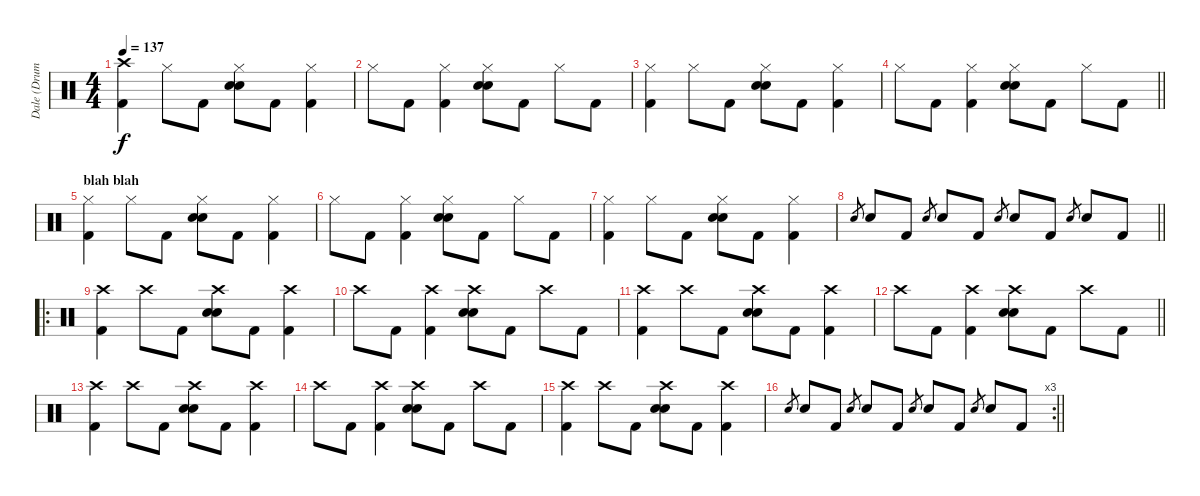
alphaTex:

\track ("Dale (Drums 1)" "Dale (Drum") {instrument percussion}
\staff {score}
\articulation defaults
\ts (4 4)
\tempo 137
\clef neutral
\ks c
("Crash high (hit)" "Kick (hit) 2").4{dy f} "Hi-Hat (closed)".8 "Kick (hit) 2".8 ("Hi-Hat (closed)" "Snare (hit) 2" "Electric Snare (hit)").8 "Kick (hit) 2".8 ("Kick (hit) 2" "Hi-Hat (closed)").4 |
"Hi-Hat (closed)".8 "Kick (hit) 2".8 ("Hi-Hat (closed)" "Kick (hit) 2").4 ("Hi-Hat (closed)" "Snare (hit) 2" "Electric Snare (hit)").8 "Kick (hit) 2".8 "Hi-Hat (closed)".8 "Kick (hit) 2".8 |
("Hi-Hat (closed)" "Kick (hit) 2").4 "Hi-Hat (closed)".8 "Kick (hit) 2".8 ("Hi-Hat (closed)" "Snare (hit) 2" "Electric Snare (hit)").8 "Kick (hit) 2".8 ("Kick (hit) 2" "Hi-Hat (closed)").4 |
\barLineRight lightlight "Hi-Hat (closed)".8 "Kick (hit) 2".8
("Hi-Hat (closed)" "Kick (hit) 2").4 ("Hi-Hat (closed)" "Snare (hit) 2" "Electric Snare (hit)").8 "Kick (hit) 2".8 "Hi-Hat (closed)".8 "Kick (hit) 2".8 |
\section ("" "blah blah")
("Hi-Hat (closed)" "Kick (hit) 2").4 "Hi-Hat (closed)".8 "Kick (hit) 2".8 ("Hi-Hat (closed)" "Snare (hit) 2" "Electric Snare (hit)").8 "Kick (hit) 2".8 ("Kick (hit) 2" "Hi-Hat (closed)").4 |
"Hi-Hat (closed)".8 "Kick (hit) 2".8 ("Hi-Hat (closed)" "Kick (hit) 2").4 ("Hi-Hat (closed)" "Snare (hit) 2" "Electric Snare (hit)").8 "Kick (hit) 2".8 "Hi-Hat (closed)".8 "Kick (hit) 2".8 |
("Hi-Hat (closed)" "Kick (hit) 2").4 "Hi-Hat (closed)".8 "Kick (hit) 2".8 ("Hi-Hat (closed)" "Snare (hit) 2" "Electric Snare (hit)").8 "Kick (hit) 2".8 ("Kick (hit) 2" "Hi-Hat (closed)").4 |
\barLineRight lightlight "Snare (hit) 2".8{gr} "Snare (hit) 2".8 "Kick (hit) 2".8 "Snare (hit) 2".8{gr} "Snare (hit) 2".8 "Kick (hit) 2".8 "Snare (hit) 2".8{gr} "Snare (hit) 2".8 "Kick (hit) 2".8 "Snare (hit) 2".8{gr} "Snare (hit) 2".8 "Kick (hit) 2".8
|
\ro
("Crash high (hit)" "Kick (hit) 2").4 "Crash high (hit)".8 "Kick (hit) 2".8 ("Crash high (hit)" "Snare (hit) 2" "Electric Snare (hit)").8 "Kick (hit) 2".8 ("Kick (hit) 2" "Crash high (hit)").4 |
"Crash high (hit)".8 "Kick (hit) 2".8 ("Crash high (hit)" "Kick (hit) 2").4 ("Crash high (hit)" "Snare (hit) 2" "Electric Snare (hit)").8 "Kick (hit) 2".8 "Crash high (hit)".8 "Kick (hit) 2".8 |
("Crash high (hit)" "Kick (hit) 2").4 "Crash high (hit)".8 "Kick (hit) 2".8 ("Crash high (hit)" "Snare (hit) 2" "Electric Snare (hit)").8 "Kick (hit) 2".8 ("Kick (hit) 2" "Crash high (hit)").4 |
\barLineRight lightlight "Crash high (hit)".8 "Kick (hit) 2".8
("Crash high (hit)" "Kick (hit) 2").4 ("Crash high (hit)" "Snare (hit) 2" "Electric Snare (hit)").8 "Kick (hit) 2".8 "Crash high (hit)".8 "Kick (hit) 2".8 |
("Crash high (hit)" "Kick (hit) 2").4 "Crash high (hit)".8 "Kick (hit) 2".8 ("Crash high (hit)" "Snare (hit) 2" "Electric Snare (hit)").8 "Kick (hit) 2".8 ("Kick (hit) 2" "Crash high (hit)").4 |
"Crash high (hit)".8 "Kick (hit) 2".8 ("Crash high (hit)" "Kick (hit) 2").4 ("Crash high (hit)" "Snare (hit) 2" "Electric Snare (hit)").8 "Kick (hit) 2".8 "Crash high (hit)".8 "Kick (hit) 2".8 |
("Crash high (hit)" "Kick (hit) 2").4 "Crash high (hit)".8 "Kick (hit) 2".8 ("Crash high (hit)" "Snare (hit) 2" "Electric Snare (hit)").8 "Kick (hit) 2".8 ("Kick (hit) 2" "Crash high (hit)").4 |
\rc 3
\barLineRight lightlight "Snare (hit) 2".8{gr} "Snare (hit) 2".8 "Kick (hit) 2".8 "Snare (hit) 2".8{gr} "Snare (hit) 2".8 "Kick (hit) 2".8 "Snare (hit) 2".8{gr} "Snare (hit) 2".8 "Kick (hit) 2".8 "Snare (hit) 2".8{gr} "Snare (hit) 2".8 "Kick (hit) 2".8
